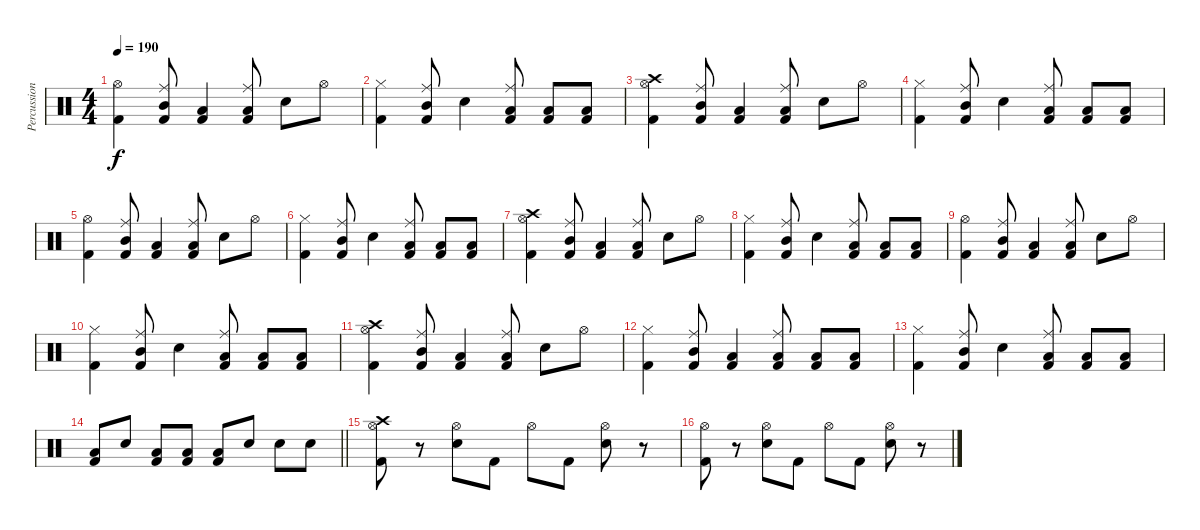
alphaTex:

\track ("Percussion" "Percussion") {instrument percussion}
\staff {score}
\articulation defaults
\ts (4 4)
\tempo 190
\clef neutral
\ks c
("Kick (hit) 2" "Hi-Hat (open)").4{dy f} ("Ride (middle)" "Kick (hit) 2" "Mid Tom (hit)").8 ("Low Tom (hit)" "Kick (hit) 2").4 ("Ride (middle)" "Kick (hit) 2" "Low Tom (hit)").8 "Snare (hit) 2".8 "Hi-Hat (open)".8 |
("Kick (hit) 2" "Hi-Hat (closed)").4 ("Ride (middle)" "Kick (hit) 2" "Mid Tom (hit)").8 "Snare (hit) 2".4 ("Ride (middle)" "Kick (hit) 2" "Low Tom (hit)").8 ("Low Tom (hit)" "Kick (hit) 2").8 ("Low Tom (hit)" "Kick (hit) 2").8 |
("Kick (hit) 2" "Crash high (hit)" "Hi-Hat (open)").4 ("Ride (middle)" "Kick (hit) 2" "Mid Tom (hit)").8 ("Low Tom (hit)" "Kick (hit) 2").4 ("Ride (middle)" "Kick (hit) 2" "Low Tom (hit)").8 "Snare (hit) 2".8 "Hi-Hat (open)".8 |
("Kick (hit) 2" "Hi-Hat (closed)").4 ("Ride (middle)" "Kick (hit) 2" "Mid Tom (hit)").8 "Snare (hit) 2".4 ("Ride (middle)" "Kick (hit) 2" "Low Tom (hit)").8 ("Low Tom (hit)" "Kick (hit) 2").8 ("Low Tom (hit)" "Kick (hit) 2").8 |
("Kick (hit) 2" "Hi-Hat (open)").4 ("Ride (middle)" "Kick (hit) 2" "Mid Tom (hit)").8 ("Low Tom (hit)" "Kick (hit) 2").4 ("Ride (middle)" "Kick (hit) 2" "Low Tom (hit)").8 "Snare (hit) 2".8 "Hi-Hat (open)".8 |
("Kick (hit) 2" "Hi-Hat (closed)").4 ("Ride (middle)" "Kick (hit) 2" "Mid Tom (hit)").8 "Snare (hit) 2".4 ("Ride (middle)" "Kick (hit) 2" "Low Tom (hit)").8 ("Low Tom (hit)" "Kick (hit) 2").8 ("Low Tom (hit)" "Kick (hit) 2").8 |
("Kick (hit) 2" "Crash high (hit)" "Hi-Hat (open)").4 ("Ride (middle)" "Kick (hit) 2" "Mid Tom (hit)").8 ("Low Tom (hit)" "Kick (hit) 2").4 ("Ride (middle)" "Kick (hit) 2" "Low Tom (hit)").8 "Snare (hit) 2".8 "Hi-Hat (open)".8 |
("Kick (hit) 2" "Hi-Hat (closed)").4 ("Ride (middle)" "Kick (hit) 2" "Mid Tom (hit)").8 "Snare (hit) 2".4 ("Ride (middle)" "Kick (hit) 2" "Low Tom (hit)").8 ("Low Tom (hit)" "Kick (hit) 2").8 ("Low Tom (hit)" "Kick (hit) 2").8 |
("Kick (hit) 2" "Hi-Hat (open)").4 ("Ride (middle)" "Kick (hit) 2" "Mid Tom (hit)").8 ("Low Tom (hit)" "Kick (hit) 2").4 ("Ride (middle)" "Kick (hit) 2" "Low Tom (hit)").8 "Snare (hit) 2".8 "Hi-Hat (open)".8 |
("Kick (hit) 2" "Hi-Hat (closed)").4 ("Ride (middle)" "Kick (hit) 2" "Mid Tom (hit)").8 "Snare (hit) 2".4 ("Ride (middle)" "Kick (hit) 2" "Low Tom (hit)").8 ("Low Tom (hit)" "Kick (hit) 2").8 ("Low Tom (hit)" "Kick (hit) 2").8 |
("Kick (hit) 2" "Crash high (hit)" "Hi-Hat (open)").4 ("Ride (middle)" "Kick (hit) 2" "Mid Tom (hit)").8 ("Low Tom (hit)" "Kick (hit) 2").4 ("Ride (middle)" "Kick (hit) 2" "Low Tom (hit)").8 "Snare (hit) 2".8 "Hi-Hat (open)".8 |
("Kick (hit) 2" "Hi-Hat (closed)").4 ("Ride (middle)" "Kick (hit) 2" "Mid Tom (hit)").8 ("Low Tom (hit)" "Kick (hit) 2").4 ("Ride (middle)" "Kick (hit) 2" "Low Tom (hit)").8 ("Low Tom (hit)" "Kick (hit) 2").8 ("Low Tom (hit)" "Kick (hit) 2").8 |
("Kick (hit) 2" "Hi-Hat (closed)").4 ("Ride (middle)" "Kick (hit) 2" "Mid Tom (hit)").8 "Snare (hit) 2".4 ("Ride (middle)" "Kick (hit) 2" "Low Tom (hit)").8 ("Low Tom (hit)" "Kick (hit) 2").8 ("Low Tom (hit)" "Kick (hit) 2").8 |
\barLineRight lightlight
("Kick (hit) 2" "Low Tom (hit)").8 "Snare (hit) 2".8 ("Kick (hit) 2" "Low Tom (hit)").8 ("Kick (hit) 2" "Low Tom (hit)").8 ("Kick (hit) 2" "Low Tom (hit)").8 "Snare (hit) 2".8 "Snare (hit) 2".8 "Snare (hit) 2".8 |
("Hi-Hat (open)" "Crash high (hit)" "Kick (hit) 2").8 r.8 ("Hi-Hat (open)" "Snare (hit) 2").8 "Kick (hit) 2".8 "Hi-Hat (open)".8 "Kick (hit) 2".8 ("Hi-Hat (open)" "Snare (hit) 2").8 r.8 |
("Hi-Hat (open)" "Kick (hit) 2").8 r.8 ("Hi-Hat (open)" "Snare (hit) 2").8 "Kick (hit) 2".8 "Hi-Hat (open)".8 "Kick (hit) 2".8 ("Hi-Hat (open)" "Snare (hit) 2").8 r.8
